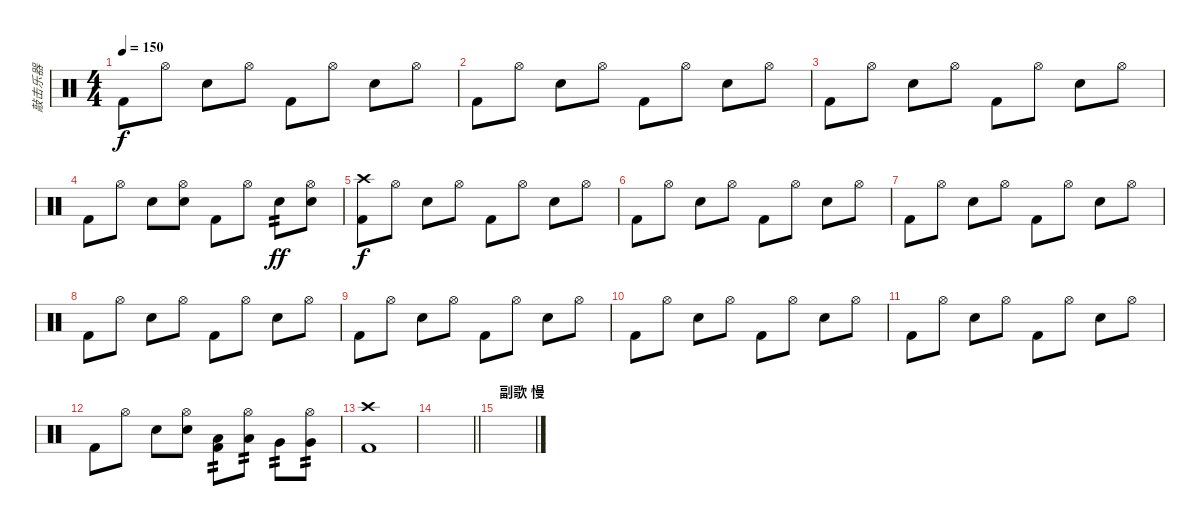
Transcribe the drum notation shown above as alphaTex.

\track ("敲击乐器" "敲击乐器") {instrument percussion}
\staff {score}
\articulation defaults
\ts (4 4)
\tempo 150
\clef neutral
\ks c "Kick (hit) 2".8{dy f} "Hi-Hat (open)".8 "Snare (hit) 2".8 "Hi-Hat (open)".8 "Kick (hit) 2".8 "Hi-Hat (open)".8 "Snare (hit) 2".8 "Hi-Hat (open)".8
|
"Kick (hit) 2".8 "Hi-Hat (open)".8 "Snare (hit) 2".8 "Hi-Hat (open)".8 "Kick (hit) 2".8 "Hi-Hat (open)".8 "Snare (hit) 2".8 "Hi-Hat (open)".8 |
"Kick (hit) 2".8 "Hi-Hat (open)".8 "Snare (hit) 2".8 "Hi-Hat (open)".8 "Kick (hit) 2".8 "Hi-Hat (open)".8 "Snare (hit) 2".8 "Hi-Hat (open)".8 |
"Kick (hit) 2".8 "Hi-Hat (open)".8 "Snare (hit) 2".8 ("Hi-Hat (open)" "Snare (hit) 2").8 "Kick (hit) 2".8 "Hi-Hat (open)".8 "Snare (hit) 2".8{tp 2 dy ff} ("Hi-Hat (open)" "Snare (hit) 2").8 |
("Crash high (hit)" "Kick (hit) 2").8{dy f} "Hi-Hat (open)".8 "Snare (hit) 2".8 "Hi-Hat (open)".8 "Kick (hit) 2".8 "Hi-Hat (open)".8 "Snare (hit) 2".8 "Hi-Hat (open)".8 |
"Kick (hit) 2".8 "Hi-Hat (open)".8 "Snare (hit) 2".8 "Hi-Hat (open)".8 "Kick (hit) 2".8 "Hi-Hat (open)".8 "Snare (hit) 2".8 "Hi-Hat (open)".8 |
"Kick (hit) 2".8 "Hi-Hat (open)".8 "Snare (hit) 2".8 "Hi-Hat (open)".8 "Kick (hit) 2".8 "Hi-Hat (open)".8 "Snare (hit) 2".8 "Hi-Hat (open)".8 |
"Kick (hit) 2".8 "Hi-Hat (open)".8 "Snare (hit) 2".8 "Hi-Hat (open)".8 "Kick (hit) 2".8 "Hi-Hat (open)".8 "Snare (hit) 2".8 "Hi-Hat (open)".8 |
"Kick (hit) 2".8 "Hi-Hat (open)".8 "Snare (hit) 2".8 "Hi-Hat (open)".8 "Kick (hit) 2".8 "Hi-Hat (open)".8 "Snare (hit) 2".8 "Hi-Hat (open)".8 |
"Kick (hit) 2".8 "Hi-Hat (open)".8 "Snare (hit) 2".8 "Hi-Hat (open)".8 "Kick (hit) 2".8 "Hi-Hat (open)".8 "Snare (hit) 2".8 "Hi-Hat (open)".8 |
"Kick (hit) 2".8 "Hi-Hat (open)".8 "Snare (hit) 2".8 "Hi-Hat (open)".8 "Kick (hit) 2".8 "Hi-Hat (open)".8 "Snare (hit) 2".8 "Hi-Hat (open)".8 |
"Kick (hit) 2".8 "Hi-Hat (open)".8 "Snare (hit) 2".8 ("Hi-Hat (open)" "Snare (hit) 2").8 ("Low Tom (hit)" "Kick (hit) 2").8{tp 2} ("Hi-Hat (open)" "Low Tom (hit)").8{tp 2} "Very Low Tom (hit)".8{tp 2} ("Hi-Hat (open)" "Very Low Tom (hit)").8{tp 2} |
("Crash high (hit)" "Kick (hit) 2").1 |
\barLineRight lightlight
|
\section ("" "副歌 慢")
